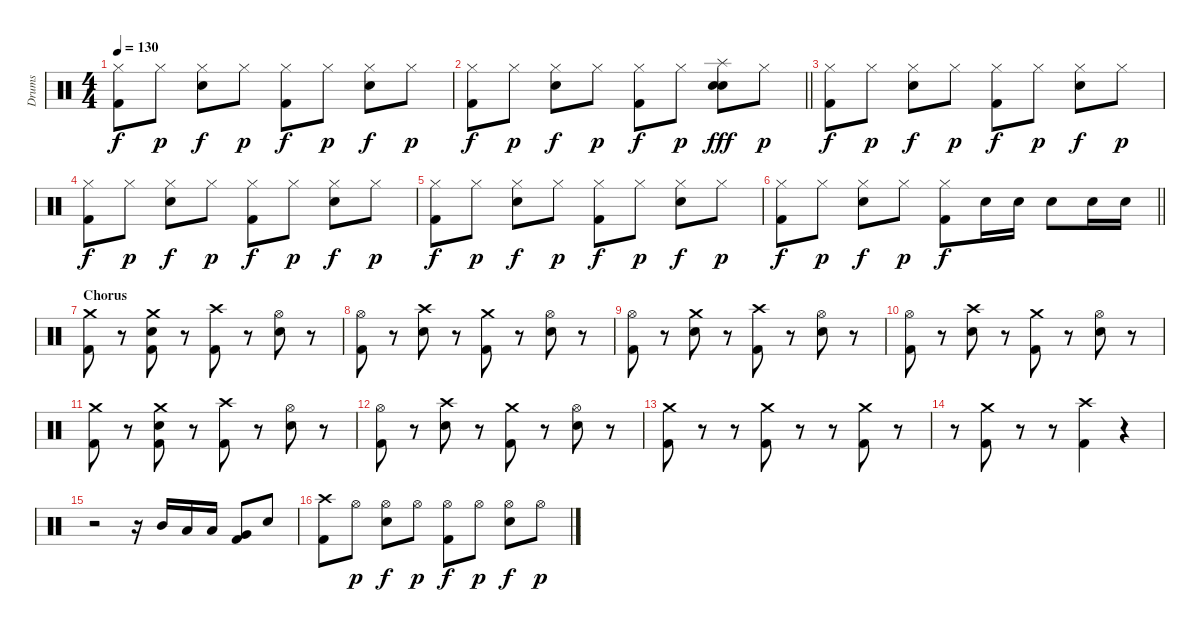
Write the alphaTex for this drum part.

\track ("Drums" "Drums") {instrument percussion}
\staff {score}
\articulation defaults
\ts (4 4)
\tempo 130
\clef neutral
\ks c
("Hi-Hat (closed)" "Kick (hit) 2").8{dy f} "Hi-Hat (closed)".8{dy p} ("Hi-Hat (closed)" "Electric Snare (hit)").8{dy f} "Hi-Hat (closed)".8{dy p} ("Hi-Hat (closed)" "Kick (hit) 2").8{dy f} "Hi-Hat (closed)".8{dy p} ("Hi-Hat (closed)" "Electric Snare (hit)").8{dy f} "Hi-Hat (closed)".8{dy p} |
\barLineRight lightlight
("Hi-Hat (closed)" "Kick (hit) 2").8{dy f} "Hi-Hat (closed)".8{dy p} ("Hi-Hat (closed)" "Electric Snare (hit)").8{dy f} "Hi-Hat (closed)".8{dy p} ("Hi-Hat (closed)" "Kick (hit) 2").8{dy f} "Hi-Hat (closed)".8{dy p} ("Splash (hit)" "Electric Snare (hit)" "Snare (hit) 2").8{dy fff} "Hi-Hat (closed)".8{dy p} |
("Hi-Hat (closed)" "Kick (hit) 2").8{dy f} "Hi-Hat (closed)".8{dy p} ("Hi-Hat (closed)" "Electric Snare (hit)").8{dy f} "Hi-Hat (closed)".8{dy p} ("Hi-Hat (closed)" "Kick (hit) 2").8{dy f} "Hi-Hat (closed)".8{dy p} ("Hi-Hat (closed)" "Electric Snare (hit)").8{dy f} "Hi-Hat (closed)".8{dy p} |
("Hi-Hat (closed)" "Kick (hit) 2").8{dy f} "Hi-Hat (closed)".8{dy p} ("Hi-Hat (closed)" "Electric Snare (hit)").8{dy f} "Hi-Hat (closed)".8{dy p} ("Hi-Hat (closed)" "Kick (hit) 2").8{dy f} "Hi-Hat (closed)".8{dy p} ("Hi-Hat (closed)" "Electric Snare (hit)").8{dy f} "Hi-Hat (closed)".8{dy p} |
("Hi-Hat (closed)" "Kick (hit) 2").8{dy f} "Hi-Hat (closed)".8{dy p} ("Hi-Hat (closed)" "Electric Snare (hit)").8{dy f} "Hi-Hat (closed)".8{dy p} ("Hi-Hat (closed)" "Kick (hit) 2").8{dy f} "Hi-Hat (closed)".8{dy p} ("Hi-Hat (closed)" "Electric Snare (hit)").8{dy f} "Hi-Hat (closed)".8{dy p} |
\barLineRight lightlight
("Hi-Hat (closed)" "Kick (hit) 2").8{dy f} "Hi-Hat (closed)".8{dy p} ("Hi-Hat (closed)" "Electric Snare (hit)").8{dy f} "Hi-Hat (closed)".8{dy p} ("Hi-Hat (closed)" "Kick (hit) 2").8{dy f} "Electric Snare (hit)".16 "Electric Snare (hit)".16 "Electric Snare (hit)".8 "Electric Snare (hit)".16 "Electric Snare (hit)".16 |
\section ("" "Chorus")
("Crash medium (hit)" "Kick (hit) 2").8 r.8 ("Crash medium (hit)" "Electric Snare (hit)" "Kick (hit) 2").8 r.8 ("Crash high (hit)" "Kick (hit) 2").8 r.8 ("Hi-Hat (open)" "Electric Snare (hit)").8 r.8 |
("Hi-Hat (open)" "Kick (hit) 2").8 r.8 ("Crash high (hit)" "Electric Snare (hit)").8 r.8 ("Crash medium (hit)" "Kick (hit) 2").8 r.8 ("Hi-Hat (open)" "Electric Snare (hit)").8 r.8 |
("Hi-Hat (open)" "Kick (hit) 2").8 r.8 ("Crash medium (hit)" "Electric Snare (hit)").8 r.8 ("Crash high (hit)" "Kick (hit) 2").8 r.8 ("Hi-Hat (open)" "Electric Snare (hit)").8 r.8 |
("Hi-Hat (open)" "Kick (hit) 2").8 r.8 ("Crash high (hit)" "Electric Snare (hit)").8 r.8 ("Crash medium (hit)" "Kick (hit) 2").8 r.8 ("Hi-Hat (open)" "Electric Snare (hit)").8 r.8 |
("Crash medium (hit)" "Kick (hit) 2").8 r.8 ("Crash medium (hit)" "Electric Snare (hit)" "Kick (hit) 2").8 r.8 ("Crash high (hit)" "Kick (hit) 2").8 r.8 ("Hi-Hat (open)" "Electric Snare (hit)").8 r.8 |
("Hi-Hat (open)" "Kick (hit) 2").8 r.8 ("Crash high (hit)" "Electric Snare (hit)").8 r.8 ("Crash medium (hit)" "Kick (hit) 2").8 r.8 ("Hi-Hat (open)" "Electric Snare (hit)").8 r.8 |
("Crash medium (hit)" "Kick (hit) 2").8 r.8 r.8 ("Crash medium (hit)" "Kick (hit) 2").8 r.8 r.8 ("Crash medium (hit)" "Kick (hit) 2").8 r.8 |
r.8 ("Crash medium (hit)" "Kick (hit) 2").8 r.8 r.8 ("Crash high (hit)" "Kick (hit) 2").4 r.4 |
r.2 r.16 "Mid Tom (hit)".16 "Low Tom (hit)".16 "Low Tom (hit)".16 ("Very Low Tom (hit)" "Kick (hit) 2").8 "Electric Snare (hit)".8 |
("Crash high (hit)" "Kick (hit) 2").8 "Hi-Hat (open)".8{dy p} ("Hi-Hat (open)" "Electric Snare (hit)").8{dy f} "Hi-Hat (open)".8{dy p} ("Hi-Hat (open)" "Kick (hit) 2").8{dy f} "Hi-Hat (open)".8{dy p} ("Hi-Hat (open)" "Electric Snare (hit)").8{dy f} "Hi-Hat (open)".8{dy p}
